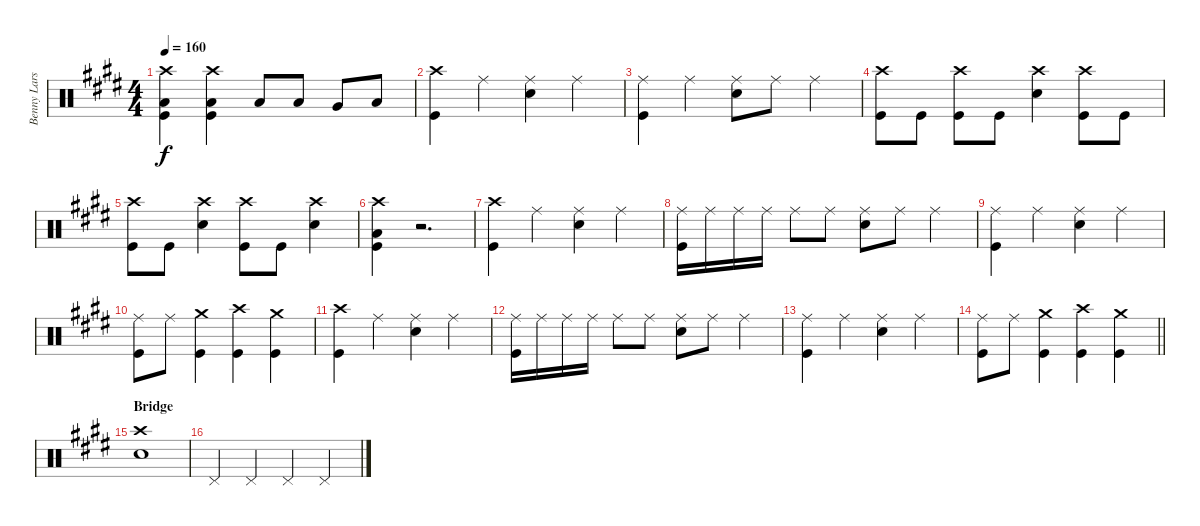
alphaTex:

\track ("Benny Larsson" "Benny Lars") {instrument percussion}
\staff {score}
\articulation defaults
\ts (4 4)
\tempo 160
\clef neutral
\ks e
("Crash high (hit)" "Low Floor Tom (hit)" "Kick (hit)").4{dy f} ("Crash high (hit)" "Low Floor Tom (hit)" "Kick (hit)").4 "Low Floor Tom (hit)".8 "Low Floor Tom (hit)".8 "Very Low Tom (hit)".8 "Low Tom (hit)".8 |
("Crash high (hit)" "Kick (hit)").4 "Ride (middle)".4 ("Ride (middle)" "Snare (hit) 2").4 "Ride (middle)".4 |
("Ride (middle)" "Kick (hit)").4 "Ride (middle)".4 ("Ride (middle)" "Snare (hit) 2").8 "Ride (middle)".8 "Ride (middle)".4 |
("Crash high (hit)" "Kick (hit)").8 "Kick (hit)".8 ("Crash high (hit)" "Kick (hit)").8 "Kick (hit)".8 ("Crash high (hit)" "Snare (hit) 2").4 ("Crash high (hit)" "Kick (hit)").8 "Kick (hit)".8 |
("Crash high (hit)" "Kick (hit)").8 "Kick (hit)".8 ("Crash high (hit)" "Snare (hit) 2").4 ("Crash high (hit)" "Kick (hit)").8 "Kick (hit)".8 ("Crash high (hit)" "Snare (hit) 2").4 |
("Crash high (hit)" "Low Floor Tom (hit)" "Kick (hit)").4 r.2{d} |
("Crash high (hit)" "Kick (hit)").4 "Ride (middle)".4 ("Ride (middle)" "Snare (hit) 2").4 "Ride (middle)".4 |
("Ride (middle)" "Kick (hit)").16 "Ride (middle)".16 "Ride (middle)".16 "Ride (middle)".16 "Ride (middle)".8 "Ride (middle)".8 ("Ride (middle)" "Snare (hit) 2").8 "Ride (middle)".8 "Ride (middle)".4 |
("Ride (middle)" "Kick (hit)").4 "Ride (middle)".4 ("Ride (middle)" "Snare (hit) 2").4 "Ride (middle)".4 |
("Ride (middle)" "Kick (hit)").8 "Ride (middle)".8 ("Crash medium (hit)" "Kick (hit)").4 ("Crash high (hit)" "Kick (hit)").4 ("Crash medium (hit)" "Kick (hit)").4 |
("Crash high (hit)" "Kick (hit)").4 "Ride (middle)".4 ("Ride (middle)" "Snare (hit) 2").4 "Ride (middle)".4 |
("Ride (middle)" "Kick (hit)").16 "Ride (middle)".16 "Ride (middle)".16 "Ride (middle)".16 "Ride (middle)".8 "Ride (middle)".8 ("Ride (middle)" "Snare (hit) 2").8 "Ride (middle)".8 "Ride (middle)".4 |
("Ride (middle)" "Kick (hit)").4 "Ride (middle)".4 ("Ride (middle)" "Snare (hit) 2").4 "Ride (middle)".4 |
\barLineRight lightlight
("Ride (middle)" "Kick (hit)").8 "Ride (middle)".8 ("Crash medium (hit)" "Kick (hit)").4 ("Crash high (hit)" "Kick (hit)").4 ("Crash medium (hit)" "Kick (hit)").4 |
\section ("" "Bridge")
("Crash high (hit)" "Snare (hit) 2").1 |
"Pedal Hi-Hat (hit)".4 "Pedal Hi-Hat (hit)".4 "Pedal Hi-Hat (hit)".4 "Pedal Hi-Hat (hit)".4
